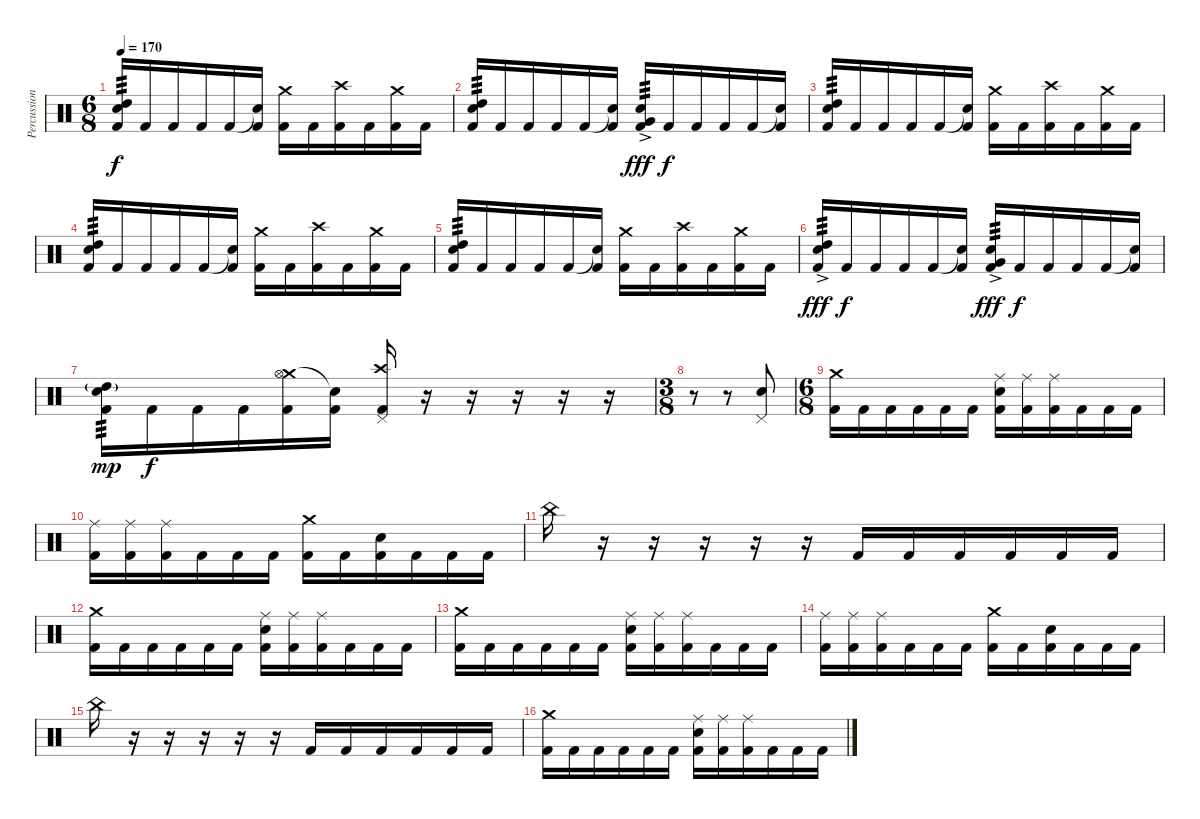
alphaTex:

\track ("Percussions" "Percussion") {instrument percussion}
\staff {score}
\articulation defaults
\ts (6 8)
\tempo 170
\clef neutral
\ks c
("Snare (hit) 2" "High Tom (hit)" "Kick (hit) 2").16{tp 3 dy f} "Kick (hit) 2".16 "Kick (hit) 2".16 "Kick (hit) 2".16 "Kick (hit) 2".16 ("Snare (hit)"{t} "Kick (hit) 2").16 ("Crash medium (hit)" "Kick (hit) 2").16 "Kick (hit) 2".16 ("Crash high (hit)" "Kick (hit) 2").16 "Kick (hit) 2".16 ("Crash medium (hit)" "Kick (hit) 2").16 "Kick (hit) 2".16 |
("Snare (hit) 2" "High Tom (hit)" "Kick (hit) 2").16{tp 3} "Kick (hit) 2".16 "Kick (hit) 2".16 "Kick (hit) 2".16 "Kick (hit) 2".16 ("Snare (hit)"{t} "Kick (hit) 2").16 ("Snare (hit) 2" "Very Low Tom (hit)"{ac} "Kick (hit) 2").16{tp 3 dy fff} "Kick (hit) 2".16{dy f} "Kick (hit) 2".16 "Kick (hit) 2".16 "Kick (hit) 2".16 ("Snare (hit)"{t} "Kick (hit) 2").16 |
("Snare (hit) 2" "High Tom (hit)" "Kick (hit) 2").16{tp 3} "Kick (hit) 2".16 "Kick (hit) 2".16 "Kick (hit) 2".16 "Kick (hit) 2".16 ("Snare (hit)"{t} "Kick (hit) 2").16 ("Crash medium (hit)" "Kick (hit) 2").16 "Kick (hit) 2".16 ("Crash high (hit)" "Kick (hit) 2").16 "Kick (hit) 2".16 ("Crash medium (hit)" "Kick (hit) 2").16 "Kick (hit) 2".16 |
("Snare (hit) 2" "High Tom (hit)" "Kick (hit) 2").16{tp 3} "Kick (hit) 2".16 "Kick (hit) 2".16 "Kick (hit) 2".16 "Kick (hit) 2".16 ("Snare (hit)"{t} "Kick (hit) 2").16 ("Crash medium (hit)" "Kick (hit) 2").16 "Kick (hit) 2".16 ("Crash high (hit)" "Kick (hit) 2").16 "Kick (hit) 2".16 ("Crash medium (hit)" "Kick (hit) 2").16 "Kick (hit) 2".16 |
("Snare (hit) 2" "High Tom (hit)" "Kick (hit) 2").16{tp 3} "Kick (hit) 2".16 "Kick (hit) 2".16 "Kick (hit) 2".16 "Kick (hit) 2".16 ("Snare (hit)"{t} "Kick (hit) 2").16 ("Crash medium (hit)" "Kick (hit) 2").16 "Kick (hit) 2".16 ("Crash high (hit)" "Kick (hit) 2").16 "Kick (hit) 2".16 ("Crash medium (hit)" "Kick (hit) 2").16 "Kick (hit) 2".16 |
("Snare (hit) 2" "High Tom (hit)"{ac} "Kick (hit) 2").16{tp 3 dy fff} "Kick (hit) 2".16{dy f} "Kick (hit) 2".16 "Kick (hit) 2".16 "Kick (hit) 2".16 ("Snare (hit)"{t} "Kick (hit) 2").16 ("Snare (hit) 2" "Very Low Tom (hit)"{ac} "Kick (hit) 2").16{tp 3 dy fff} "Kick (hit) 2".16{dy f} "Kick (hit) 2".16 "Kick (hit) 2".16 "Kick (hit) 2".16 ("Snare (hit)"{t} "Kick (hit) 2").16 |
("Snare (hit) 2" "High Tom (hit)"{g} "Kick (hit) 2").16{tp 3 dy mp} "Kick (hit) 2".16{dy f} "Kick (hit) 2".16 "Kick (hit) 2".16 ("Crash medium (hit)" "Hi-Hat (open)" "Kick (hit) 2").16 ("Snare (hit)"{t} "Kick (hit) 2").16 ("Crash high (hit)" "Pedal Hi-Hat (hit)" "Kick (hit) 2").16 r.16 r.16 r.16 r.16 r.16 |
\ts (3 8)
r.8 r.8 ("Pedal Hi-Hat (hit)" "Snare (hit) 2").8 |
\ts (6 8)
("Crash medium (hit)" "Kick (hit) 2").16 "Kick (hit) 2".16 "Kick (hit) 2".16 "Kick (hit) 2".16 "Kick (hit) 2".16 "Kick (hit) 2".16 ("Snare (hit) 2" "Ride (middle)" "Kick (hit) 2").16 ("Ride (middle)" "Kick (hit) 2").16 ("Ride (middle)" "Kick (hit) 2").16 "Kick (hit) 2".16 "Kick (hit) 2".16 "Kick (hit) 2".16 |
("Ride (middle)" "Kick (hit) 2").16 ("Ride (middle)" "Kick (hit) 2").16 ("Ride (middle)" "Kick (hit) 2").16 "Kick (hit) 2".16 "Kick (hit) 2".16 "Kick (hit) 2".16 ("Crash medium (hit)" "Kick (hit) 2").16 "Kick (hit) 2".16 ("Snare (hit) 2" "Kick (hit) 2").16 "Kick (hit) 2".16 "Kick (hit) 2".16 "Kick (hit) 2".16 |
"China (hit)".16 r.16 r.16 r.16 r.16 r.16 "Kick (hit) 2".16 "Kick (hit) 2".16 "Kick (hit) 2".16 "Kick (hit) 2".16 "Kick (hit) 2".16 "Kick (hit) 2".16 |
("Crash medium (hit)" "Kick (hit) 2").16 "Kick (hit) 2".16 "Kick (hit) 2".16 "Kick (hit) 2".16 "Kick (hit) 2".16 "Kick (hit) 2".16 ("Snare (hit) 2" "Ride (middle)" "Kick (hit) 2").16 ("Ride (middle)" "Kick (hit) 2").16 ("Ride (middle)" "Kick (hit) 2").16 "Kick (hit) 2".16 "Kick (hit) 2".16 "Kick (hit) 2".16 |
("Crash medium (hit)" "Kick (hit) 2").16 "Kick (hit) 2".16 "Kick (hit) 2".16 "Kick (hit) 2".16 "Kick (hit) 2".16 "Kick (hit) 2".16 ("Snare (hit) 2" "Ride (middle)" "Kick (hit) 2").16 ("Ride (middle)" "Kick (hit) 2").16 ("Ride (middle)" "Kick (hit) 2").16 "Kick (hit) 2".16 "Kick (hit) 2".16 "Kick (hit) 2".16 |
("Ride (middle)" "Kick (hit) 2").16 ("Ride (middle)" "Kick (hit) 2").16 ("Ride (middle)" "Kick (hit) 2").16 "Kick (hit) 2".16 "Kick (hit) 2".16 "Kick (hit) 2".16 ("Crash medium (hit)" "Kick (hit) 2").16 "Kick (hit) 2".16 ("Snare (hit) 2" "Kick (hit) 2").16 "Kick (hit) 2".16 "Kick (hit) 2".16 "Kick (hit) 2".16 |
"China (hit)".16 r.16 r.16 r.16 r.16 r.16 "Kick (hit) 2".16 "Kick (hit) 2".16 "Kick (hit) 2".16 "Kick (hit) 2".16 "Kick (hit) 2".16 "Kick (hit) 2".16 |
("Crash medium (hit)" "Kick (hit) 2").16 "Kick (hit) 2".16 "Kick (hit) 2".16 "Kick (hit) 2".16 "Kick (hit) 2".16 "Kick (hit) 2".16 ("Snare (hit) 2" "Ride (middle)" "Kick (hit) 2").16 ("Ride (middle)" "Kick (hit) 2").16 ("Ride (middle)" "Kick (hit) 2").16 "Kick (hit) 2".16 "Kick (hit) 2".16 "Kick (hit) 2".16
